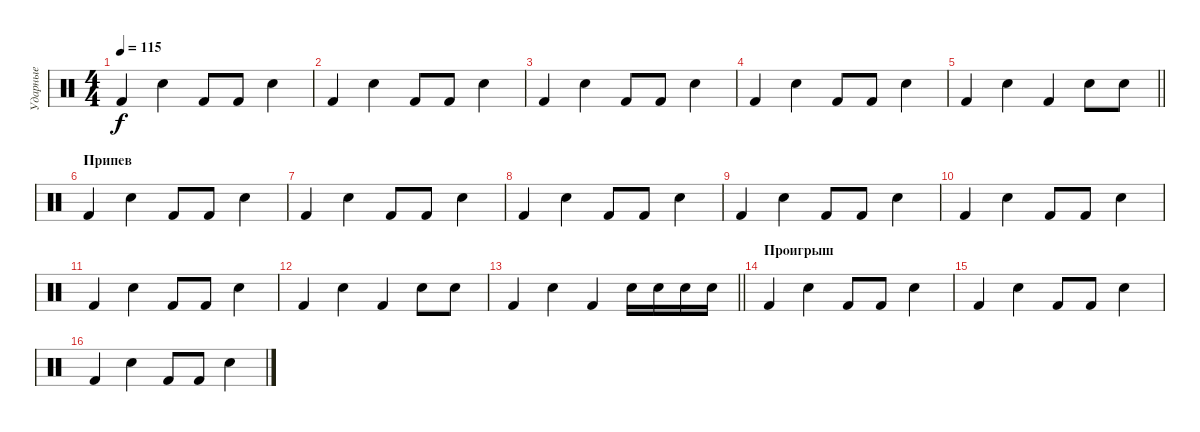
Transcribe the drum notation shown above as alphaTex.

\track ("Ударные" "Ударные") {instrument percussion}
\staff {score}
\articulation defaults
\ts (4 4)
\tempo 115
\clef neutral
\ks c "Kick (hit) 2".4{dy f} "Electric Snare (hit)".4 "Kick (hit) 2".8 "Kick (hit) 2".8 "Electric Snare (hit)".4
|
"Kick (hit) 2".4 "Electric Snare (hit)".4 "Kick (hit) 2".8 "Kick (hit) 2".8 "Electric Snare (hit)".4 |
"Kick (hit) 2".4 "Electric Snare (hit)".4 "Kick (hit) 2".8 "Kick (hit) 2".8 "Electric Snare (hit)".4 |
"Kick (hit) 2".4 "Electric Snare (hit)".4 "Kick (hit) 2".8 "Kick (hit) 2".8 "Electric Snare (hit)".4 |
\barLineRight lightlight "Kick (hit) 2".4 "Electric Snare (hit)".4 "Kick (hit) 2".4 "Electric Snare (hit)".8 "Electric Snare (hit)".8
|
\section ("" "Припев")
"Kick (hit) 2".4 "Electric Snare (hit)".4 "Kick (hit) 2".8 "Kick (hit) 2".8 "Electric Snare (hit)".4 |
"Kick (hit) 2".4 "Electric Snare (hit)".4 "Kick (hit) 2".8 "Kick (hit) 2".8 "Electric Snare (hit)".4 |
"Kick (hit) 2".4 "Electric Snare (hit)".4 "Kick (hit) 2".8 "Kick (hit) 2".8 "Electric Snare (hit)".4 |
"Kick (hit) 2".4 "Electric Snare (hit)".4 "Kick (hit) 2".8 "Kick (hit) 2".8 "Electric Snare (hit)".4 |
"Kick (hit) 2".4 "Electric Snare (hit)".4 "Kick (hit) 2".8 "Kick (hit) 2".8 "Electric Snare (hit)".4 |
"Kick (hit) 2".4 "Electric Snare (hit)".4 "Kick (hit) 2".8 "Kick (hit) 2".8 "Electric Snare (hit)".4 |
"Kick (hit) 2".4 "Electric Snare (hit)".4 "Kick (hit) 2".4 "Electric Snare (hit)".8 "Electric Snare (hit)".8 |
\barLineRight lightlight "Kick (hit) 2".4 "Electric Snare (hit)".4 "Kick (hit) 2".4 "Electric Snare (hit)".16 "Electric Snare (hit)".16 "Electric Snare (hit)".16 "Electric Snare (hit)".16
|
\section ("" "Проигрыш")
"Kick (hit) 2".4 "Electric Snare (hit)".4 "Kick (hit) 2".8 "Kick (hit) 2".8 "Electric Snare (hit)".4 |
"Kick (hit) 2".4 "Electric Snare (hit)".4 "Kick (hit) 2".8 "Kick (hit) 2".8 "Electric Snare (hit)".4 |
"Kick (hit) 2".4 "Electric Snare (hit)".4 "Kick (hit) 2".8 "Kick (hit) 2".8 "Electric Snare (hit)".4
